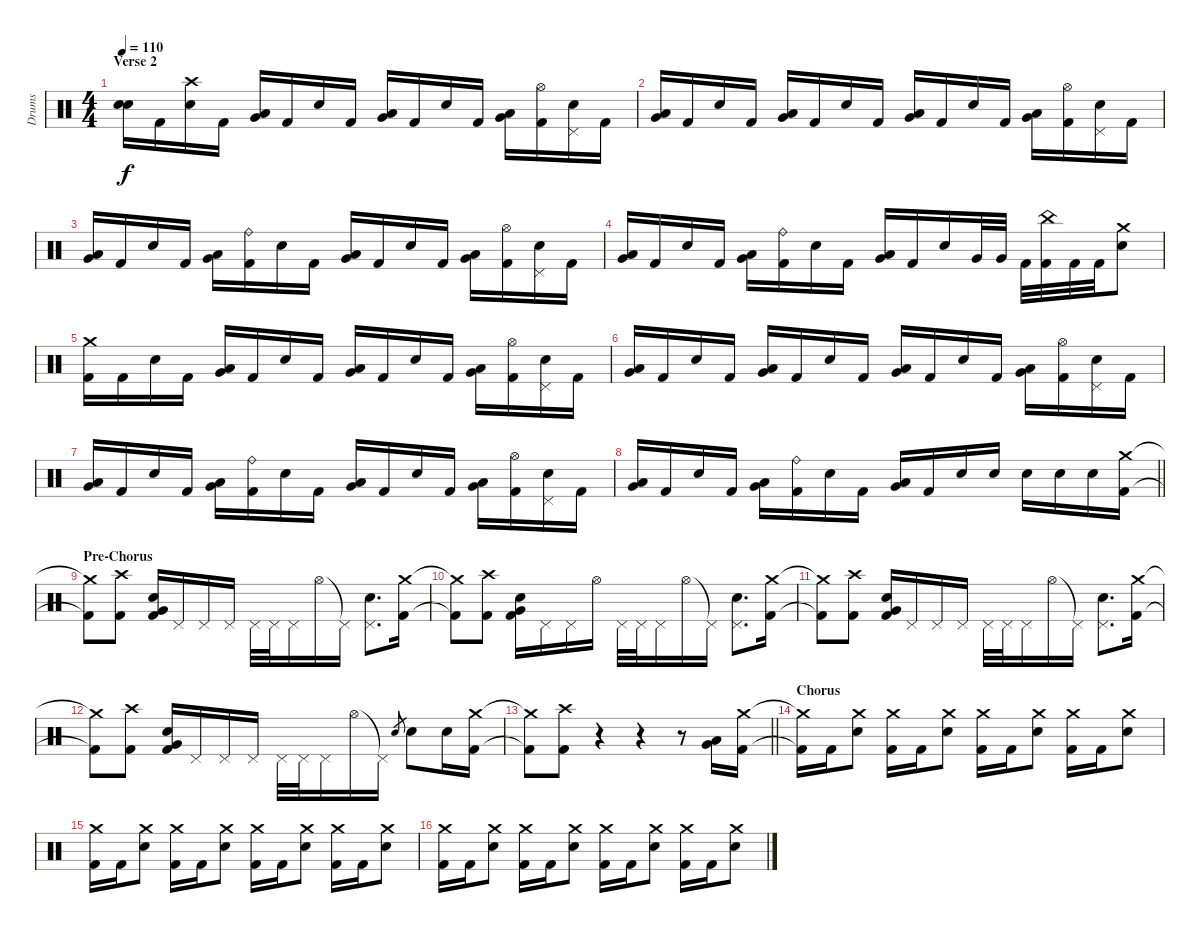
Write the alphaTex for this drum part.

\track ("Drums" "Drums") {instrument percussion}
\staff {score}
\articulation defaults
\ts (4 4)
\section ("" "Verse 2")
\tempo 110
\clef neutral
\ks c
("Snare (hit)"{t} "Snare (hit)"{t}).16{dy f} "Kick (hit) 2".16 ("Crash high (hit)" "Electric Snare (hit)").16 "Kick (hit) 2".16 ("Low Tom (hit)" "Very Low Tom (hit)").16 "Kick (hit) 2".16 "Electric Snare (hit)".16 "Kick (hit) 2".16 ("Low Tom (hit)" "Very Low Tom (hit)").16 "Kick (hit) 2".16 "Electric Snare (hit)".16 "Kick (hit) 2".16 ("Low Tom (hit)" "Very Low Tom (hit)").16 ("Hi-Hat (open)" "Kick (hit) 2").16 ("Pedal Hi-Hat (hit)" "Electric Snare (hit)").16 "Kick (hit) 2".16 |
("Low Tom (hit)" "Very Low Tom (hit)").16 "Kick (hit) 2".16 "Electric Snare (hit)".16 "Kick (hit) 2".16 ("Low Tom (hit)" "Very Low Tom (hit)").16 "Kick (hit) 2".16 "Electric Snare (hit)".16 "Kick (hit) 2".16 ("Low Tom (hit)" "Very Low Tom (hit)").16 "Kick (hit) 2".16 "Electric Snare (hit)".16 "Kick (hit) 2".16 ("Low Tom (hit)" "Very Low Tom (hit)").16 ("Hi-Hat (open)" "Kick (hit) 2").16 ("Pedal Hi-Hat (hit)" "Electric Snare (hit)").16 "Kick (hit) 2".16 |
("Low Tom (hit)" "Very Low Tom (hit)").16 "Kick (hit) 2".16 "Electric Snare (hit)".16 "Kick (hit) 2".16 ("Low Tom (hit)" "Very Low Tom (hit)").16 ("Ride (bell)" "Kick (hit) 2").16 "Electric Snare (hit)".16 "Kick (hit) 2".16 ("Low Tom (hit)" "Very Low Tom (hit)").16 "Kick (hit) 2".16 "Electric Snare (hit)".16 "Kick (hit) 2".16 ("Low Tom (hit)" "Very Low Tom (hit)").16 ("Hi-Hat (open)" "Kick (hit) 2").16 ("Pedal Hi-Hat (hit)" "Electric Snare (hit)").16 "Kick (hit) 2".16 |
("Low Tom (hit)" "Very Low Tom (hit)").16 "Kick (hit) 2".16 "Electric Snare (hit)".16 "Kick (hit) 2".16 ("Low Tom (hit)" "Very Low Tom (hit)").16 ("Ride (bell)" "Kick (hit) 2").16 "Electric Snare (hit)".16 "Kick (hit) 2".16 ("Low Tom (hit)" "Very Low Tom (hit)").16 "Kick (hit) 2".16 "Electric Snare (hit)".16 "Very Low Tom (hit)".32 "Very Low Tom (hit)".32 "Kick (hit) 2".32 ("China (hit)" "Kick (hit) 2").32 "Kick (hit) 2".32 "Kick (hit) 2".32 ("Crash medium (hit)" "Electric Snare (hit)").8 |
("Crash medium (hit)" "Kick (hit) 2").16 "Kick (hit) 2".16 "Electric Snare (hit)".16 "Kick (hit) 2".16 ("Low Tom (hit)" "Very Low Tom (hit)").16 "Kick (hit) 2".16 "Electric Snare (hit)".16 "Kick (hit) 2".16 ("Low Tom (hit)" "Very Low Tom (hit)").16 "Kick (hit) 2".16 "Electric Snare (hit)".16 "Kick (hit) 2".16 ("Low Tom (hit)" "Very Low Tom (hit)").16 ("Hi-Hat (open)" "Kick (hit) 2").16 ("Pedal Hi-Hat (hit)" "Electric Snare (hit)").16 "Kick (hit) 2".16 |
("Low Tom (hit)" "Very Low Tom (hit)").16 "Kick (hit) 2".16 "Electric Snare (hit)".16 "Kick (hit) 2".16 ("Low Tom (hit)" "Very Low Tom (hit)").16 "Kick (hit) 2".16 "Electric Snare (hit)".16 "Kick (hit) 2".16 ("Low Tom (hit)" "Very Low Tom (hit)").16 "Kick (hit) 2".16 "Electric Snare (hit)".16 "Kick (hit) 2".16 ("Low Tom (hit)" "Very Low Tom (hit)").16 ("Hi-Hat (open)" "Kick (hit) 2").16 ("Pedal Hi-Hat (hit)" "Electric Snare (hit)").16 "Kick (hit) 2".16 |
("Low Tom (hit)" "Very Low Tom (hit)").16 "Kick (hit) 2".16 "Electric Snare (hit)".16 "Kick (hit) 2".16 ("Low Tom (hit)" "Very Low Tom (hit)").16 ("Ride (bell)" "Kick (hit) 2").16 "Electric Snare (hit)".16 "Kick (hit) 2".16 ("Low Tom (hit)" "Very Low Tom (hit)").16 "Kick (hit) 2".16 "Electric Snare (hit)".16 "Kick (hit) 2".16 ("Low Tom (hit)" "Very Low Tom (hit)").16 ("Hi-Hat (open)" "Kick (hit) 2").16 ("Pedal Hi-Hat (hit)" "Electric Snare (hit)").16 "Kick (hit) 2".16 |
\barLineRight lightlight
("Low Tom (hit)" "Very Low Tom (hit)").16 "Kick (hit) 2".16 "Electric Snare (hit)".16 "Kick (hit) 2".16 ("Low Tom (hit)" "Very Low Tom (hit)").16 ("Ride (bell)" "Kick (hit) 2").16 "Electric Snare (hit)".16 "Kick (hit) 2".16 ("Low Tom (hit)" "Very Low Tom (hit)").16 "Kick (hit) 2".16 "Electric Snare (hit)".16 "Electric Snare (hit)".16 "Electric Snare (hit)".16 "Electric Snare (hit)".16 "Electric Snare (hit)".16 ("Crash medium (hit)" "Kick (hit) 2").16 |
\section ("" "Pre-Chorus")
("Crash medium (hit)"{t} "Kick (hit) 2"{t}).8 ("Crash high (hit)" "Kick (hit) 2").8 ("Very Low Tom (hit)" "Electric Snare (hit)" "Kick (hit) 2").16 "Pedal Hi-Hat (hit)".16 "Pedal Hi-Hat (hit)".16 "Pedal Hi-Hat (hit)".16 "Pedal Hi-Hat (hit)".32 "Pedal Hi-Hat (hit)".32 "Pedal Hi-Hat (hit)".16 "Hi-Hat (open)".16 "Pedal Hi-Hat (hit)"{t}.16 ("Pedal Hi-Hat (hit)" "Electric Snare (hit)").8{d} ("Crash medium (hit)" "Kick (hit) 2").16 |
("Crash medium (hit)"{t} "Kick (hit) 2"{t}).8 ("Crash high (hit)" "Kick (hit) 2").8 ("Very Low Tom (hit)" "Electric Snare (hit)" "Kick (hit) 2").16 "Pedal Hi-Hat (hit)".16 "Pedal Hi-Hat (hit)".16 "Hi-Hat (open)".16 "Pedal Hi-Hat (hit)".32 "Pedal Hi-Hat (hit)".32 "Pedal Hi-Hat (hit)".16 "Hi-Hat (open)".16 "Pedal Hi-Hat (hit)"{t}.16 ("Pedal Hi-Hat (hit)" "Electric Snare (hit)").8{d} ("Crash medium (hit)" "Kick (hit) 2").16 |
("Crash medium (hit)"{t} "Kick (hit) 2"{t}).8 ("Crash high (hit)" "Kick (hit) 2").8 ("Very Low Tom (hit)" "Electric Snare (hit)" "Kick (hit) 2").16 "Pedal Hi-Hat (hit)".16 "Pedal Hi-Hat (hit)".16 "Pedal Hi-Hat (hit)".16 "Pedal Hi-Hat (hit)".32 "Pedal Hi-Hat (hit)".32 "Pedal Hi-Hat (hit)".16 "Hi-Hat (open)".16 "Pedal Hi-Hat (hit)"{t}.16 ("Pedal Hi-Hat (hit)" "Electric Snare (hit)").8{d} ("Crash medium (hit)" "Kick (hit) 2").16 |
("Crash medium (hit)"{t} "Kick (hit) 2"{t}).8 ("Crash high (hit)" "Kick (hit) 2").8 ("Very Low Tom (hit)" "Electric Snare (hit)" "Kick (hit) 2").16 "Pedal Hi-Hat (hit)".16 "Pedal Hi-Hat (hit)".16 "Pedal Hi-Hat (hit)".16 "Pedal Hi-Hat (hit)".32 "Pedal Hi-Hat (hit)".32 "Pedal Hi-Hat (hit)".16 "Hi-Hat (open)".16 "Pedal Hi-Hat (hit)"{t}.16 "Electric Snare (hit)".8{gr} "Electric Snare (hit)".8 "Electric Snare (hit)".16 ("Crash medium (hit)" "Kick (hit) 2").16 |
\barLineRight lightlight
("Crash medium (hit)"{t} "Kick (hit) 2"{t}).8 ("Crash high (hit)" "Kick (hit) 2").8 r.4 r.4 r.8 ("Low Tom (hit)" "Very Low Tom (hit)").16 ("Crash medium (hit)" "Kick (hit) 2").16 |
\section ("" "Chorus")
("Crash medium (hit)"{t} "Kick (hit) 2"{t}).16 "Kick (hit) 2".16 ("Crash medium (hit)" "Electric Snare (hit)").8 ("Crash medium (hit)" "Kick (hit) 2").16 "Kick (hit) 2".16 ("Crash medium (hit)" "Electric Snare (hit)").8 ("Crash medium (hit)" "Kick (hit) 2").16 "Kick (hit) 2".16 ("Crash medium (hit)" "Electric Snare (hit)").8 ("Crash medium (hit)" "Kick (hit) 2").16 "Kick (hit) 2".16 ("Crash medium (hit)" "Electric Snare (hit)").8 |
("Crash medium (hit)" "Kick (hit) 2").16 "Kick (hit) 2".16 ("Crash medium (hit)" "Electric Snare (hit)").8 ("Crash medium (hit)" "Kick (hit) 2").16 "Kick (hit) 2".16 ("Crash medium (hit)" "Electric Snare (hit)").8 ("Crash medium (hit)" "Kick (hit) 2").16 "Kick (hit) 2".16 ("Crash medium (hit)" "Electric Snare (hit)").8 ("Crash medium (hit)" "Kick (hit) 2").16 "Kick (hit) 2".16 ("Crash medium (hit)" "Electric Snare (hit)").8 |
("Crash medium (hit)" "Kick (hit) 2").16 "Kick (hit) 2".16 ("Crash medium (hit)" "Electric Snare (hit)").8 ("Crash medium (hit)" "Kick (hit) 2").16 "Kick (hit) 2".16 ("Crash medium (hit)" "Electric Snare (hit)").8 ("Crash medium (hit)" "Kick (hit) 2").16 "Kick (hit) 2".16 ("Crash medium (hit)" "Electric Snare (hit)").8 ("Crash medium (hit)" "Kick (hit) 2").16 "Kick (hit) 2".16 ("Crash medium (hit)" "Electric Snare (hit)").8
